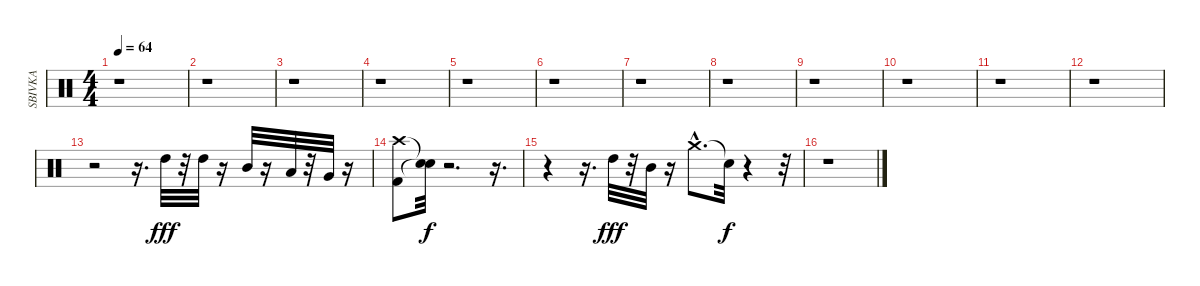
\track ("SBIVKA" "SBIVKA") {instrument percussion}
\staff {score}
\articulation defaults
\ts (4 4)
\tempo 64
\clef neutral
\ks c
r.1{dy fff} |
r.1 |
r.1 |
r.1 |
r.1 |
r.1 |
r.1 |
r.1 |
r.1 |
r.1 |
r.1 |
r.1 |
r.2 r.16{d} "High Tom (hit)".32 r.32 "High Tom (hit)".32 r.16 "Mid Tom (hit)".32 r.16 "Low Tom (hit)".32 r.32 "Very Low Tom (hit)".32 r.16 |
("Crash high (hit)" "Kick (hit) 2").8 ("Snare (hit)"{t} "Snare (hit)"{t}).32{dy f} r.2{d} r.16{d} |
r.4 r.16{d} "High Tom (hit)".32{dy fff} r.32 "Mid Tom (hit)".32 r.16 "Crash medium (hit)"{hac}.8{d} "Snare (hit)"{t}.32{dy f} r.4 r.32 |
r.1
